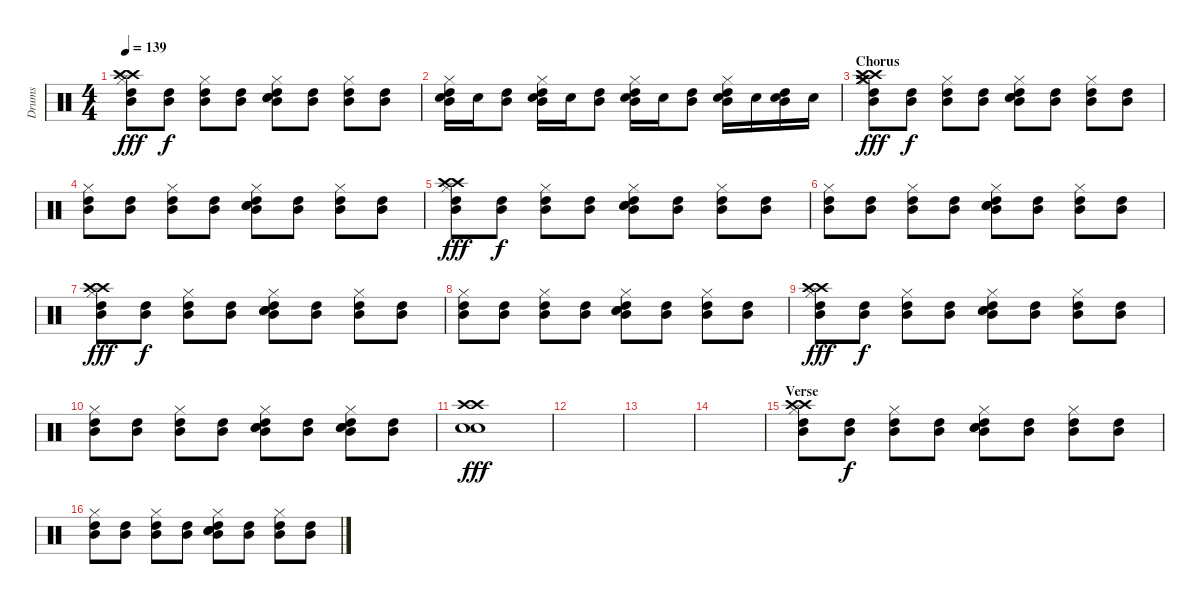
\track ("Drums" "Drums") {instrument percussion}
\staff {score}
\articulation defaults
\ts (4 4)
\tempo 139
\clef neutral
\ks c
("Hi-Hat (closed)" "Mid Tom (hit)" "High Tom (hit)" "Crash high (hit)" "Crash high (hit)").8{dy fff} ("Mid Tom (hit)" "High Tom (hit)").8{dy f} ("Hi-Hat (closed)" "Mid Tom (hit)" "High Tom (hit)").8 ("Mid Tom (hit)" "High Tom (hit)").8 ("Hi-Hat (closed)" "Mid Tom (hit)" "High Tom (hit)" "Electric Snare (hit)" "Electric Snare (hit)").8 ("Mid Tom (hit)" "High Tom (hit)").8 ("Hi-Hat (closed)" "Mid Tom (hit)" "High Tom (hit)").8 ("Mid Tom (hit)" "High Tom (hit)").8 |
("Hi-Hat (closed)" "Mid Tom (hit)" "High Tom (hit)" "Electric Snare (hit)").16 "Electric Snare (hit)".16 ("Mid Tom (hit)" "High Tom (hit)").8 ("Hi-Hat (closed)" "Mid Tom (hit)" "High Tom (hit)" "Electric Snare (hit)").16 "Electric Snare (hit)".16 ("Mid Tom (hit)" "High Tom (hit)").8 ("Hi-Hat (closed)" "Mid Tom (hit)" "High Tom (hit)" "Electric Snare (hit)").16 "Electric Snare (hit)".16 ("Mid Tom (hit)" "High Tom (hit)").8 ("Hi-Hat (closed)" "Mid Tom (hit)" "High Tom (hit)" "Electric Snare (hit)").16 "Electric Snare (hit)".16 ("Mid Tom (hit)" "High Tom (hit)" "Electric Snare (hit)").16 "Electric Snare (hit)".16 |
\section ("" "Chorus")
("Hi-Hat (closed)" "Mid Tom (hit)" "High Tom (hit)" "Crash medium (hit)" "Crash high (hit)" "Crash high (hit)").8{dy fff} ("Mid Tom (hit)" "High Tom (hit)").8{dy f} ("Hi-Hat (closed)" "Mid Tom (hit)" "High Tom (hit)").8 ("Mid Tom (hit)" "High Tom (hit)").8 ("Hi-Hat (closed)" "Mid Tom (hit)" "High Tom (hit)" "Electric Snare (hit)" "Electric Snare (hit)").8 ("Mid Tom (hit)" "High Tom (hit)").8 ("Hi-Hat (closed)" "Mid Tom (hit)" "High Tom (hit)").8 ("Mid Tom (hit)" "High Tom (hit)").8 |
("Hi-Hat (closed)" "Mid Tom (hit)" "High Tom (hit)").8 ("Mid Tom (hit)" "High Tom (hit)").8 ("Hi-Hat (closed)" "Mid Tom (hit)" "High Tom (hit)").8 ("Mid Tom (hit)" "High Tom (hit)").8 ("Hi-Hat (closed)" "Mid Tom (hit)" "High Tom (hit)" "Electric Snare (hit)" "Electric Snare (hit)").8 ("Mid Tom (hit)" "High Tom (hit)").8 ("Hi-Hat (closed)" "Mid Tom (hit)" "High Tom (hit)").8 ("Mid Tom (hit)" "High Tom (hit)").8 |
("Hi-Hat (closed)" "Mid Tom (hit)" "High Tom (hit)" "Crash high (hit)" "Crash high (hit)").8{dy fff} ("Mid Tom (hit)" "High Tom (hit)").8{dy f} ("Hi-Hat (closed)" "Mid Tom (hit)" "High Tom (hit)").8 ("Mid Tom (hit)" "High Tom (hit)").8 ("Hi-Hat (closed)" "Mid Tom (hit)" "High Tom (hit)" "Electric Snare (hit)" "Electric Snare (hit)").8 ("Mid Tom (hit)" "High Tom (hit)").8 ("Hi-Hat (closed)" "Mid Tom (hit)" "High Tom (hit)").8 ("Mid Tom (hit)" "High Tom (hit)").8 |
("Hi-Hat (closed)" "Mid Tom (hit)" "High Tom (hit)").8 ("Mid Tom (hit)" "High Tom (hit)").8 ("Hi-Hat (closed)" "Mid Tom (hit)" "High Tom (hit)").8 ("Mid Tom (hit)" "High Tom (hit)").8 ("Hi-Hat (closed)" "Mid Tom (hit)" "High Tom (hit)" "Electric Snare (hit)" "Electric Snare (hit)").8 ("Mid Tom (hit)" "High Tom (hit)").8 ("Hi-Hat (closed)" "Mid Tom (hit)" "High Tom (hit)").8 ("Mid Tom (hit)" "High Tom (hit)").8 |
("Hi-Hat (closed)" "Mid Tom (hit)" "High Tom (hit)" "Crash high (hit)" "Crash high (hit)").8{dy fff} ("Mid Tom (hit)" "High Tom (hit)").8{dy f} ("Hi-Hat (closed)" "Mid Tom (hit)" "High Tom (hit)").8 ("Mid Tom (hit)" "High Tom (hit)").8 ("Hi-Hat (closed)" "Mid Tom (hit)" "High Tom (hit)" "Electric Snare (hit)" "Electric Snare (hit)").8 ("Mid Tom (hit)" "High Tom (hit)").8 ("Hi-Hat (closed)" "Mid Tom (hit)" "High Tom (hit)").8 ("Mid Tom (hit)" "High Tom (hit)").8 |
("Hi-Hat (closed)" "Mid Tom (hit)" "High Tom (hit)").8 ("Mid Tom (hit)" "High Tom (hit)").8 ("Hi-Hat (closed)" "Mid Tom (hit)" "High Tom (hit)").8 ("Mid Tom (hit)" "High Tom (hit)").8 ("Hi-Hat (closed)" "Mid Tom (hit)" "High Tom (hit)" "Electric Snare (hit)" "Electric Snare (hit)").8 ("Mid Tom (hit)" "High Tom (hit)").8 ("Hi-Hat (closed)" "Mid Tom (hit)" "High Tom (hit)").8 ("Mid Tom (hit)" "High Tom (hit)").8 |
("Hi-Hat (closed)" "Mid Tom (hit)" "High Tom (hit)" "Crash high (hit)" "Crash high (hit)").8{dy fff} ("Mid Tom (hit)" "High Tom (hit)").8{dy f} ("Hi-Hat (closed)" "Mid Tom (hit)" "High Tom (hit)").8 ("Mid Tom (hit)" "High Tom (hit)").8 ("Hi-Hat (closed)" "Mid Tom (hit)" "High Tom (hit)" "Electric Snare (hit)" "Electric Snare (hit)").8 ("Mid Tom (hit)" "High Tom (hit)").8 ("Hi-Hat (closed)" "Mid Tom (hit)" "High Tom (hit)").8 ("Mid Tom (hit)" "High Tom (hit)").8 |
("Hi-Hat (closed)" "Mid Tom (hit)" "High Tom (hit)").8 ("Mid Tom (hit)" "High Tom (hit)").8 ("Hi-Hat (closed)" "Mid Tom (hit)" "High Tom (hit)").8 ("Mid Tom (hit)" "High Tom (hit)").8 ("Hi-Hat (closed)" "Mid Tom (hit)" "High Tom (hit)" "Electric Snare (hit)" "Electric Snare (hit)").8 ("Mid Tom (hit)" "High Tom (hit)").8 ("Hi-Hat (closed)" "Mid Tom (hit)" "High Tom (hit)" "Electric Snare (hit)" "Electric Snare (hit)").8 ("Mid Tom (hit)" "High Tom (hit)").8 |
("Electric Snare (hit)" "Electric Snare (hit)" "Crash high (hit)" "Crash high (hit)").1{dy fff} |
|
|
|
\section ("" "Verse")
("Hi-Hat (closed)" "Mid Tom (hit)" "High Tom (hit)" "Crash high (hit)" "Crash high (hit)").8 ("Mid Tom (hit)" "High Tom (hit)").8{dy f} ("Hi-Hat (closed)" "Mid Tom (hit)" "High Tom (hit)").8 ("Mid Tom (hit)" "High Tom (hit)").8 ("Hi-Hat (closed)" "Mid Tom (hit)" "High Tom (hit)" "Electric Snare (hit)" "Electric Snare (hit)").8 ("Mid Tom (hit)" "High Tom (hit)").8 ("Hi-Hat (closed)" "Mid Tom (hit)" "High Tom (hit)").8 ("Mid Tom (hit)" "High Tom (hit)").8 |
("Hi-Hat (closed)" "Mid Tom (hit)" "High Tom (hit)").8 ("Mid Tom (hit)" "High Tom (hit)").8 ("Hi-Hat (closed)" "Mid Tom (hit)" "High Tom (hit)").8 ("Mid Tom (hit)" "High Tom (hit)").8 ("Hi-Hat (closed)" "Mid Tom (hit)" "High Tom (hit)" "Electric Snare (hit)" "Electric Snare (hit)").8 ("Mid Tom (hit)" "High Tom (hit)").8 ("Hi-Hat (closed)" "Mid Tom (hit)" "High Tom (hit)").8 ("Mid Tom (hit)" "High Tom (hit)").8
